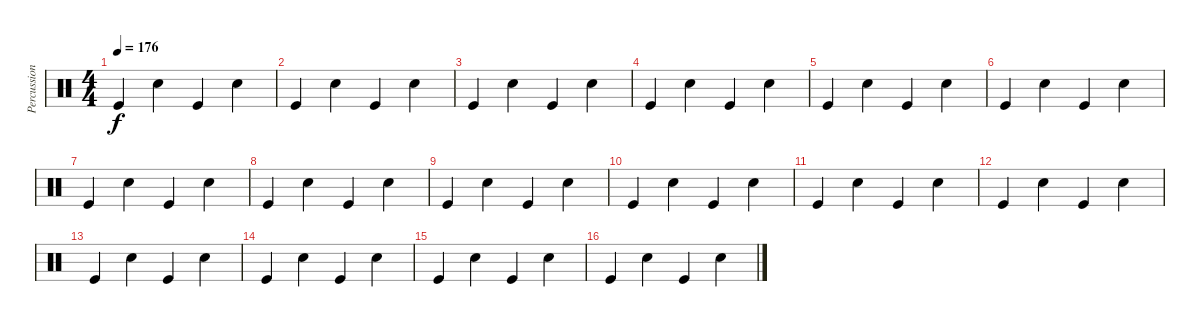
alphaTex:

\track ("Percussion" "Percussion") {instrument percussion}
\staff {score}
\articulation defaults
\ts (4 4)
\tempo 176
\clef neutral
\ks c "Kick (hit)".4{dy f} "Electric Snare (hit)".4 "Kick (hit)".4 "Electric Snare (hit)".4
|
"Kick (hit)".4 "Electric Snare (hit)".4 "Kick (hit)".4 "Electric Snare (hit)".4 |
"Kick (hit)".4 "Electric Snare (hit)".4 "Kick (hit)".4 "Electric Snare (hit)".4 |
"Kick (hit)".4 "Electric Snare (hit)".4 "Kick (hit)".4 "Electric Snare (hit)".4 |
"Kick (hit)".4 "Electric Snare (hit)".4 "Kick (hit)".4 "Electric Snare (hit)".4 |
"Kick (hit)".4 "Electric Snare (hit)".4 "Kick (hit)".4 "Electric Snare (hit)".4 |
"Kick (hit)".4 "Electric Snare (hit)".4 "Kick (hit)".4 "Electric Snare (hit)".4 |
"Kick (hit)".4 "Electric Snare (hit)".4 "Kick (hit)".4 "Electric Snare (hit)".4 |
"Kick (hit)".4 "Electric Snare (hit)".4 "Kick (hit)".4 "Electric Snare (hit)".4 |
"Kick (hit)".4 "Electric Snare (hit)".4 "Kick (hit)".4 "Electric Snare (hit)".4 |
"Kick (hit)".4 "Electric Snare (hit)".4 "Kick (hit)".4 "Electric Snare (hit)".4 |
"Kick (hit)".4 "Electric Snare (hit)".4 "Kick (hit)".4 "Electric Snare (hit)".4 |
"Kick (hit)".4 "Electric Snare (hit)".4 "Kick (hit)".4 "Electric Snare (hit)".4 |
"Kick (hit)".4 "Electric Snare (hit)".4 "Kick (hit)".4 "Electric Snare (hit)".4 |
"Kick (hit)".4 "Electric Snare (hit)".4 "Kick (hit)".4 "Electric Snare (hit)".4 |
"Kick (hit)".4 "Electric Snare (hit)".4 "Kick (hit)".4 "Electric Snare (hit)".4
